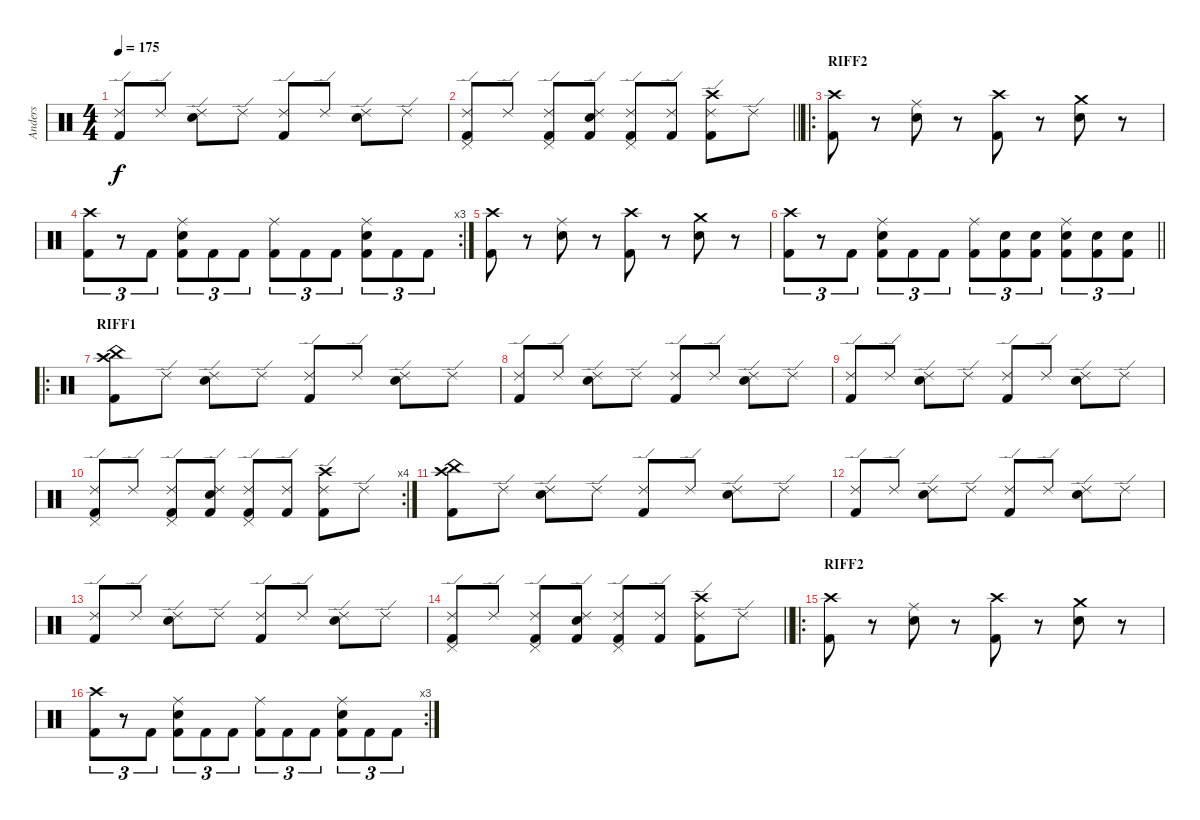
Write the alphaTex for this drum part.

\track ("Anders " "Anders ") {instrument percussion}
\staff {score}
\articulation defaults
\ts (4 4)
\tempo 175
\clef neutral
\ks c
("Ride (edge) 2" "Kick (hit) 2").8{dy f} "Ride (edge) 2".8 ("Ride (edge) 2" "Snare (hit) 2").8 "Ride (edge) 2".8 ("Ride (edge) 2" "Kick (hit) 2").8 "Ride (edge) 2".8 ("Ride (edge) 2" "Snare (hit) 2").8 "Ride (edge) 2".8 |
\barLineRight lightlight
("Ride (edge) 2" "Pedal Hi-Hat (hit)" "Kick (hit) 2").8 "Ride (edge) 2".8 ("Ride (edge) 2" "Pedal Hi-Hat (hit)" "Kick (hit) 2").8 ("Ride (edge) 2" "Snare (hit) 2" "Kick (hit) 2").8 ("Ride (edge) 2" "Pedal Hi-Hat (hit)" "Kick (hit) 2").8 ("Ride (edge) 2" "Kick (hit) 2").8 ("Ride (edge) 2" "Crash high (hit)" "Kick (hit) 2").8 "Ride (edge) 2".8 |
\ro
\section ("" "RIFF2")
("Crash high (hit)" "Kick (hit) 2").8 r.8 ("Ride (middle)" "Snare (hit) 2").8 r.8 ("Crash high (hit)" "Kick (hit) 2").8 r.8 ("Crash medium (hit)" "Snare (hit) 2").8 r.8 |
\rc 3
("Crash high (hit)" "Kick (hit) 2").8{tu (3 2)} r.8{tu (3 2)} "Kick (hit) 2".8{tu (3 2)} ("Ride (middle)" "Snare (hit) 2" "Kick (hit) 2").8{tu (3 2)} "Kick (hit) 2".8{tu (3 2)} "Kick (hit) 2".8{tu (3 2)} ("Ride (middle)" "Kick (hit) 2").8{tu (3 2)} "Kick (hit) 2".8{tu (3 2)} "Kick (hit) 2".8{tu (3 2)} ("Ride (middle)" "Snare (hit) 2" "Kick (hit) 2").8{tu (3 2)} "Kick (hit) 2".8{tu (3 2)} "Kick (hit) 2".8{tu (3 2)} |
("Crash high (hit)" "Kick (hit) 2").8 r.8 ("Ride (middle)" "Snare (hit) 2").8 r.8 ("Crash high (hit)" "Kick (hit) 2").8 r.8 ("Crash medium (hit)" "Snare (hit) 2").8 r.8 |
\barLineRight lightlight
("Crash high (hit)" "Kick (hit) 2").8{tu (3 2)} r.8{tu (3 2)} "Kick (hit) 2".8{tu (3 2)} ("Ride (middle)" "Snare (hit) 2" "Kick (hit) 2").8{tu (3 2)} "Kick (hit) 2".8{tu (3 2)} "Kick (hit) 2".8{tu (3 2)} ("Ride (middle)" "Kick (hit) 2").8{tu (3 2)} ("Snare (hit) 2" "Kick (hit) 2").8{tu (3 2)} ("Snare (hit) 2" "Kick (hit) 2").8{tu (3 2)} ("Ride (middle)" "Snare (hit) 2" "Kick (hit) 2").8{tu (3 2)} ("Snare (hit) 2" "Kick (hit) 2").8{tu (3 2)} ("Snare (hit) 2" "Kick (hit) 2").8{tu (3 2)} |
\ro
\section ("" "RIFF1")
("Crash high (hit)" "China (hit)" "Kick (hit) 2").8 "Ride (edge) 2".8 ("Ride (edge) 2" "Snare (hit) 2").8 "Ride (edge) 2".8 ("Ride (edge) 2" "Kick (hit) 2").8 "Ride (edge) 2".8 ("Ride (edge) 2" "Snare (hit) 2").8 "Ride (edge) 2".8 |
("Ride (edge) 2" "Kick (hit) 2").8 "Ride (edge) 2".8 ("Ride (edge) 2" "Snare (hit) 2").8 "Ride (edge) 2".8 ("Ride (edge) 2" "Kick (hit) 2").8 "Ride (edge) 2".8 ("Ride (edge) 2" "Snare (hit) 2").8 "Ride (edge) 2".8 |
("Ride (edge) 2" "Kick (hit) 2").8 "Ride (edge) 2".8 ("Ride (edge) 2" "Snare (hit) 2").8 "Ride (edge) 2".8 ("Ride (edge) 2" "Kick (hit) 2").8 "Ride (edge) 2".8 ("Ride (edge) 2" "Snare (hit) 2").8 "Ride (edge) 2".8 |
\rc 4
("Ride (edge) 2" "Pedal Hi-Hat (hit)" "Kick (hit) 2").8 "Ride (edge) 2".8 ("Ride (edge) 2" "Pedal Hi-Hat (hit)" "Kick (hit) 2").8 ("Ride (edge) 2" "Snare (hit) 2" "Kick (hit) 2").8 ("Ride (edge) 2" "Pedal Hi-Hat (hit)" "Kick (hit) 2").8 ("Ride (edge) 2" "Kick (hit) 2").8 ("Ride (edge) 2" "Crash high (hit)" "Kick (hit) 2").8 "Ride (edge) 2".8 |
("Crash high (hit)" "China (hit)" "Kick (hit) 2").8 "Ride (edge) 2".8 ("Ride (edge) 2" "Snare (hit) 2").8 "Ride (edge) 2".8 ("Ride (edge) 2" "Kick (hit) 2").8 "Ride (edge) 2".8 ("Ride (edge) 2" "Snare (hit) 2").8 "Ride (edge) 2".8 |
("Ride (edge) 2" "Kick (hit) 2").8 "Ride (edge) 2".8 ("Ride (edge) 2" "Snare (hit) 2").8 "Ride (edge) 2".8 ("Ride (edge) 2" "Kick (hit) 2").8 "Ride (edge) 2".8 ("Ride (edge) 2" "Snare (hit) 2").8 "Ride (edge) 2".8 |
("Ride (edge) 2" "Kick (hit) 2").8 "Ride (edge) 2".8 ("Ride (edge) 2" "Snare (hit) 2").8 "Ride (edge) 2".8 ("Ride (edge) 2" "Kick (hit) 2").8 "Ride (edge) 2".8 ("Ride (edge) 2" "Snare (hit) 2").8 "Ride (edge) 2".8 |
\barLineRight lightlight
("Ride (edge) 2" "Pedal Hi-Hat (hit)" "Kick (hit) 2").8 "Ride (edge) 2".8 ("Ride (edge) 2" "Pedal Hi-Hat (hit)" "Kick (hit) 2").8 ("Ride (edge) 2" "Snare (hit) 2" "Kick (hit) 2").8 ("Ride (edge) 2" "Pedal Hi-Hat (hit)" "Kick (hit) 2").8 ("Ride (edge) 2" "Kick (hit) 2").8 ("Ride (edge) 2" "Crash high (hit)" "Kick (hit) 2").8 "Ride (edge) 2".8 |
\ro
\section ("" "RIFF2")
("Crash high (hit)" "Kick (hit) 2").8 r.8 ("Ride (middle)" "Snare (hit) 2").8 r.8 ("Crash high (hit)" "Kick (hit) 2").8 r.8 ("Crash medium (hit)" "Snare (hit) 2").8 r.8 |
\rc 3
("Crash high (hit)" "Kick (hit) 2").8{tu (3 2)} r.8{tu (3 2)} "Kick (hit) 2".8{tu (3 2)} ("Ride (middle)" "Snare (hit) 2" "Kick (hit) 2").8{tu (3 2)} "Kick (hit) 2".8{tu (3 2)} "Kick (hit) 2".8{tu (3 2)} ("Ride (middle)" "Kick (hit) 2").8{tu (3 2)} "Kick (hit) 2".8{tu (3 2)} "Kick (hit) 2".8{tu (3 2)} ("Ride (middle)" "Snare (hit) 2" "Kick (hit) 2").8{tu (3 2)} "Kick (hit) 2".8{tu (3 2)} "Kick (hit) 2".8{tu (3 2)}
